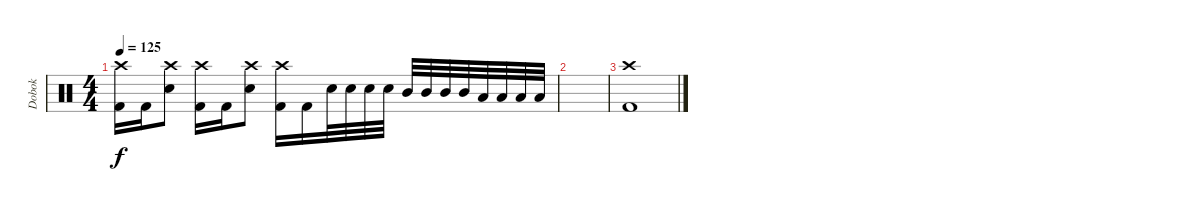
\track ("Dobok" "Dobok") {instrument percussion}
\staff {score}
\articulation defaults
\ts (4 4)
\tempo 125
\clef neutral
\ks c
("Crash high (hit)" "Kick (hit) 2").16{dy f} "Kick (hit) 2".16 ("Crash high (hit)" "Snare (hit) 2").8 ("Crash high (hit)" "Kick (hit) 2").16 "Kick (hit) 2".16 ("Crash high (hit)" "Snare (hit) 2").8 ("Crash high (hit)" "Kick (hit) 2").16 "Kick (hit) 2".16 "Snare (hit) 2".32 "Snare (hit) 2".32 "Snare (hit) 2".32 "Snare (hit) 2".32 "Mid Tom (hit)".32 "Mid Tom (hit)".32 "Mid Tom (hit)".32 "Mid Tom (hit)".32 "Low Floor Tom (hit)".32 "Low Floor Tom (hit)".32 "Low Floor Tom (hit)".32 "Low Floor Tom (hit)".32 |
|
("Crash high (hit)" "Kick (hit) 2").1
